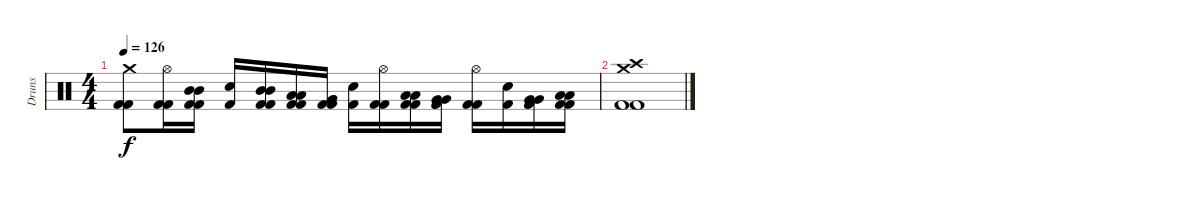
\track ("Druns" "Druns") {instrument percussion}
\staff {score}
\articulation defaults
\ts (4 4)
\tempo 126
\clef neutral
\ks c
("Crash medium (hit)" "Kick (hit) 2" "Kick (hit) 2").8{dy f} ("Hi-Hat (open)" "Kick (hit) 2" "Kick (hit) 2").16 ("Mid Tom (hit)" "Mid Tom (hit)" "Kick (hit) 2" "Kick (hit) 2").16 ("Electric Snare (hit)" "Kick (hit) 2").16 ("Mid Tom (hit)" "Mid Tom (hit)" "Kick (hit) 2" "Kick (hit) 2").16 ("Low Tom (hit)" "Low Tom (hit)" "Kick (hit) 2" "Kick (hit) 2").16 ("Very Low Tom (hit)" "Very Low Tom (hit)" "Kick (hit) 2" "Kick (hit) 2").16 ("Electric Snare (hit)" "Kick (hit) 2").16 ("Hi-Hat (open)" "Kick (hit) 2" "Kick (hit) 2").16 ("Low Tom (hit)" "Low Tom (hit)" "Kick (hit) 2" "Kick (hit) 2").16 ("Very Low Tom (hit)" "Very Low Tom (hit)" "Kick (hit) 2" "Kick (hit) 2").16 ("Hi-Hat (open)" "Kick (hit) 2" "Kick (hit) 2").16 ("Electric Snare (hit)" "Kick (hit) 2").16 ("Very Low Tom (hit)" "Very Low Tom (hit)" "Kick (hit) 2" "Kick (hit) 2").16 ("Low Floor Tom (hit)" "Low Floor Tom (hit)" "Kick (hit) 2" "Kick (hit) 2").16 |
("Crash medium (hit)" "Crash high (hit)" "Kick (hit) 2" "Kick (hit) 2").1
